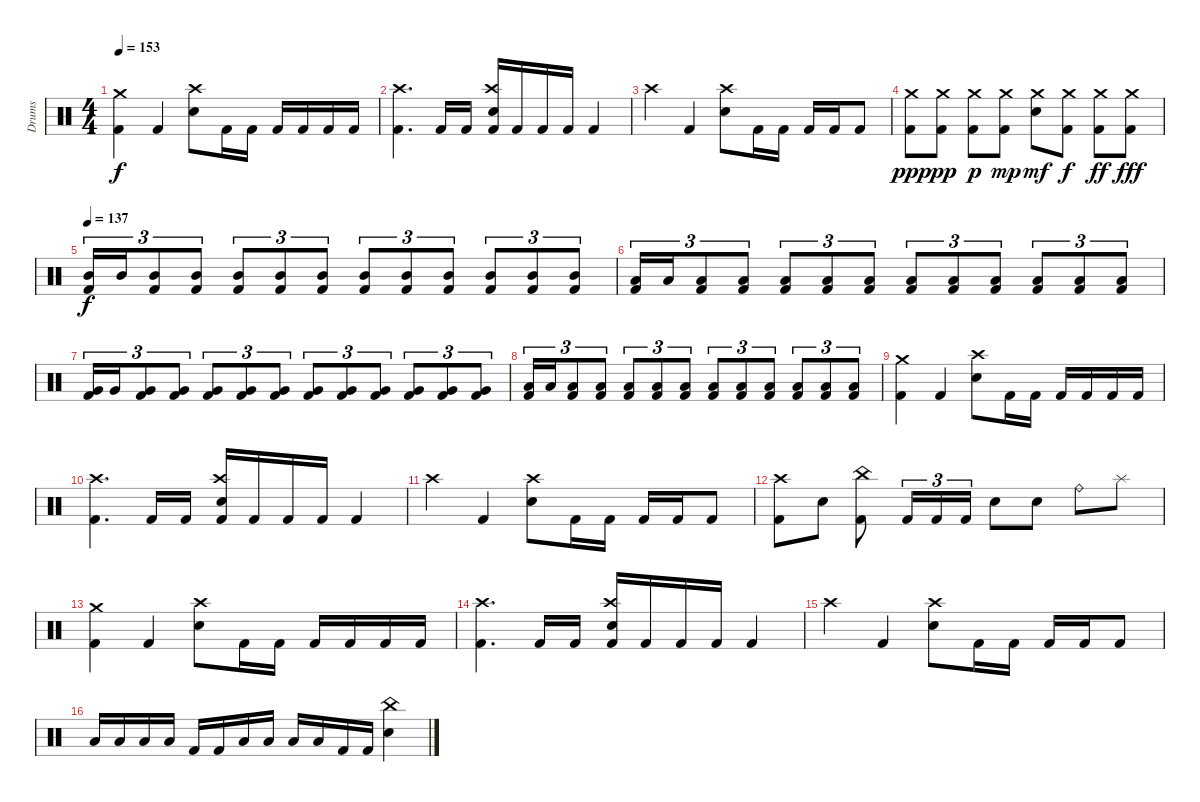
\track ("Drums" "Drums") {instrument percussion}
\staff
\articulation defaults
\ts (4 4)
\tempo 153
\clef neutral
\ks c
("Crash medium (hit)" "Kick (hit) 2").4{dy f} "Kick (hit) 2".4 ("Crash high (hit)" "Electric Snare (hit)").8 "Kick (hit) 2".16 "Kick (hit) 2".16 "Kick (hit) 2".16 "Kick (hit) 2".16 "Kick (hit) 2".16 "Kick (hit) 2".16 |
("Crash high (hit)" "Kick (hit) 2").4{d} "Kick (hit) 2".16 "Kick (hit) 2".16 ("Crash high (hit)" "Electric Snare (hit)" "Kick (hit) 2").16 "Kick (hit) 2".16 "Kick (hit) 2".16 "Kick (hit) 2".16 "Kick (hit) 2".4 |
"Crash high (hit)".4 "Kick (hit) 2".4 ("Crash high (hit)" "Electric Snare (hit)").8 "Kick (hit) 2".16 "Kick (hit) 2".16 "Kick (hit) 2".16 "Kick (hit) 2".16 "Kick (hit) 2".8 |
("Crash medium (hit)" "Kick (hit) 2").8{dy ppp} ("Crash medium (hit)" "Kick (hit) 2").8{dy pp} ("Crash medium (hit)" "Kick (hit) 2").8{dy p} ("Crash medium (hit)" "Kick (hit) 2").8{dy mp} ("Crash medium (hit)" "Electric Snare (hit)").8{dy mf} ("Crash medium (hit)" "Kick (hit) 2").8{dy f} ("Crash medium (hit)" "Kick (hit) 2").8{dy ff} ("Crash medium (hit)" "Kick (hit) 2").8{dy fff} |
\tempo 137
("Mid Tom (hit)" "Kick (hit) 2").16{tu (3 2) dy f} "Mid Tom (hit)".16{tu (3 2)} ("Mid Tom (hit)" "Kick (hit) 2").8{tu (3 2)} ("Mid Tom (hit)" "Kick (hit) 2").8{tu (3 2)} ("Mid Tom (hit)" "Kick (hit) 2").8{tu (3 2)} ("Mid Tom (hit)" "Kick (hit) 2").8{tu (3 2)} ("Mid Tom (hit)" "Kick (hit) 2").8{tu (3 2)} ("Mid Tom (hit)" "Kick (hit) 2").8{tu (3 2)} ("Mid Tom (hit)" "Kick (hit) 2").8{tu (3 2)} ("Mid Tom (hit)" "Kick (hit) 2").8{tu (3 2)} ("Mid Tom (hit)" "Kick (hit) 2").8{tu (3 2)} ("Mid Tom (hit)" "Kick (hit) 2").8{tu (3 2)} ("Mid Tom (hit)" "Kick (hit) 2").8{tu (3 2)} |
("Low Tom (hit)" "Kick (hit) 2").16{tu (3 2)} "Low Tom (hit)".16{tu (3 2)} ("Low Tom (hit)" "Kick (hit) 2").8{tu (3 2)} ("Low Tom (hit)" "Kick (hit) 2").8{tu (3 2)} ("Low Tom (hit)" "Kick (hit) 2").8{tu (3 2)} ("Low Tom (hit)" "Kick (hit) 2").8{tu (3 2)} ("Low Tom (hit)" "Kick (hit) 2").8{tu (3 2)} ("Low Tom (hit)" "Kick (hit) 2").8{tu (3 2)} ("Low Tom (hit)" "Kick (hit) 2").8{tu (3 2)} ("Low Tom (hit)" "Kick (hit) 2").8{tu (3 2)} ("Low Tom (hit)" "Kick (hit) 2").8{tu (3 2)} ("Low Tom (hit)" "Kick (hit) 2").8{tu (3 2)} ("Low Tom (hit)" "Kick (hit) 2").8{tu (3 2)} |
("Very Low Tom (hit)" "Kick (hit) 2").16{tu (3 2)} "Very Low Tom (hit)".16{tu (3 2)} ("Very Low Tom (hit)" "Kick (hit) 2").8{tu (3 2)} ("Very Low Tom (hit)" "Kick (hit) 2").8{tu (3 2)} ("Very Low Tom (hit)" "Kick (hit) 2").8{tu (3 2)} ("Very Low Tom (hit)" "Kick (hit) 2").8{tu (3 2)} ("Very Low Tom (hit)" "Kick (hit) 2").8{tu (3 2)} ("Very Low Tom (hit)" "Kick (hit) 2").8{tu (3 2)} ("Very Low Tom (hit)" "Kick (hit) 2").8{tu (3 2)} ("Very Low Tom (hit)" "Kick (hit) 2").8{tu (3 2)} ("Very Low Tom (hit)" "Kick (hit) 2").8{tu (3 2)} ("Very Low Tom (hit)" "Kick (hit) 2").8{tu (3 2)} ("Very Low Tom (hit)" "Kick (hit) 2").8{tu (3 2)} |
("Low Floor Tom (hit)" "Kick (hit) 2").16{tu (3 2)} "Low Floor Tom (hit)".16{tu (3 2)} ("Low Floor Tom (hit)" "Kick (hit) 2").8{tu (3 2)} ("Low Floor Tom (hit)" "Kick (hit) 2").8{tu (3 2)} ("Low Floor Tom (hit)" "Kick (hit) 2").8{tu (3 2)} ("Low Floor Tom (hit)" "Kick (hit) 2").8{tu (3 2)} ("Low Floor Tom (hit)" "Kick (hit) 2").8{tu (3 2)} ("Low Floor Tom (hit)" "Kick (hit) 2").8{tu (3 2)} ("Low Floor Tom (hit)" "Kick (hit) 2").8{tu (3 2)} ("Low Floor Tom (hit)" "Kick (hit) 2").8{tu (3 2)} ("Low Floor Tom (hit)" "Kick (hit) 2").8{tu (3 2)} ("Low Floor Tom (hit)" "Kick (hit) 2").8{tu (3 2)} ("Low Floor Tom (hit)" "Kick (hit) 2").8{tu (3 2)} |
("Crash medium (hit)" "Kick (hit) 2").4 "Kick (hit) 2".4 ("Crash high (hit)" "Electric Snare (hit)").8 "Kick (hit) 2".16 "Kick (hit) 2".16 "Kick (hit) 2".16 "Kick (hit) 2".16 "Kick (hit) 2".16 "Kick (hit) 2".16 |
("Crash high (hit)" "Kick (hit) 2").4{d} "Kick (hit) 2".16 "Kick (hit) 2".16 ("Crash high (hit)" "Electric Snare (hit)" "Kick (hit) 2").16 "Kick (hit) 2".16 "Kick (hit) 2".16 "Kick (hit) 2".16 "Kick (hit) 2".4 |
"Crash high (hit)".4 "Kick (hit) 2".4 ("Crash high (hit)" "Electric Snare (hit)").8 "Kick (hit) 2".16 "Kick (hit) 2".16 "Kick (hit) 2".16 "Kick (hit) 2".16 "Kick (hit) 2".8 |
("Crash high (hit)" "Kick (hit) 2").8 "Electric Snare (hit)".8 ("China (hit)" "Kick (hit) 2").8 "Kick (hit) 2".16{tu (3 2)} "Kick (hit) 2".16{tu (3 2)} "Kick (hit) 2".16{tu (3 2)} "Electric Snare (hit)".8 "Electric Snare (hit)".8 "Ride (bell)".8 "Splash (hit)".8 |
("Crash medium (hit)" "Kick (hit) 2").4 "Kick (hit) 2".4 ("Crash high (hit)" "Electric Snare (hit)").8 "Kick (hit) 2".16 "Kick (hit) 2".16 "Kick (hit) 2".16 "Kick (hit) 2".16 "Kick (hit) 2".16 "Kick (hit) 2".16 |
("Crash high (hit)" "Kick (hit) 2").4{d} "Kick (hit) 2".16 "Kick (hit) 2".16 ("Crash high (hit)" "Electric Snare (hit)" "Kick (hit) 2").16 "Kick (hit) 2".16 "Kick (hit) 2".16 "Kick (hit) 2".16 "Kick (hit) 2".4 |
"Crash high (hit)".4 "Kick (hit) 2".4 ("Crash high (hit)" "Electric Snare (hit)").8 "Kick (hit) 2".16 "Kick (hit) 2".16 "Kick (hit) 2".16 "Kick (hit) 2".16 "Kick (hit) 2".8 |
"Low Floor Tom (hit)".16 "Low Floor Tom (hit)".16 "Low Floor Tom (hit)".16 "Low Floor Tom (hit)".16 "Kick (hit) 2".16 "Kick (hit) 2".16 "Low Floor Tom (hit)".16 "Low Floor Tom (hit)".16 "Low Floor Tom (hit)".16 "Low Floor Tom (hit)".16 "Kick (hit) 2".16 "Kick (hit) 2".16 ("China (hit)" "Electric Snare (hit)").4
